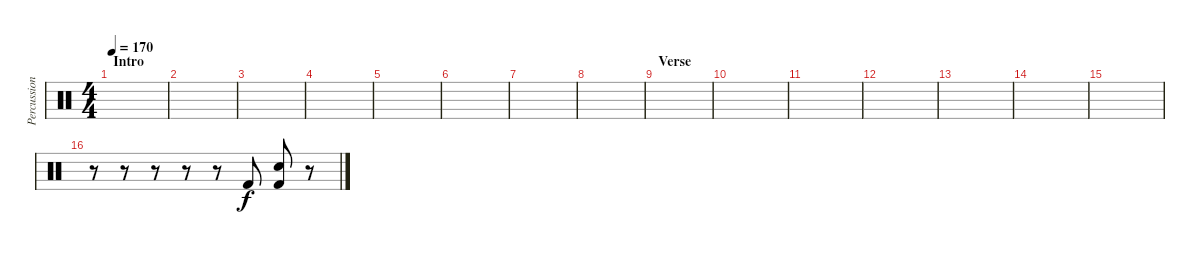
\track ("Percussions" "Percussion") {instrument percussion}
\staff {score}
\articulation defaults
\ts (4 4)
\section ("" "Intro")
\tempo 170
\clef neutral
\ks c
|
|
|
|
|
|
|
|
\section ("" "Verse")
|
|
|
|
|
|
|
r.8 r.8 r.8 r.8 r.8 "Kick (hit) 2".8 ("Snare (hit) 2" "Kick (hit) 2").8 r.8
